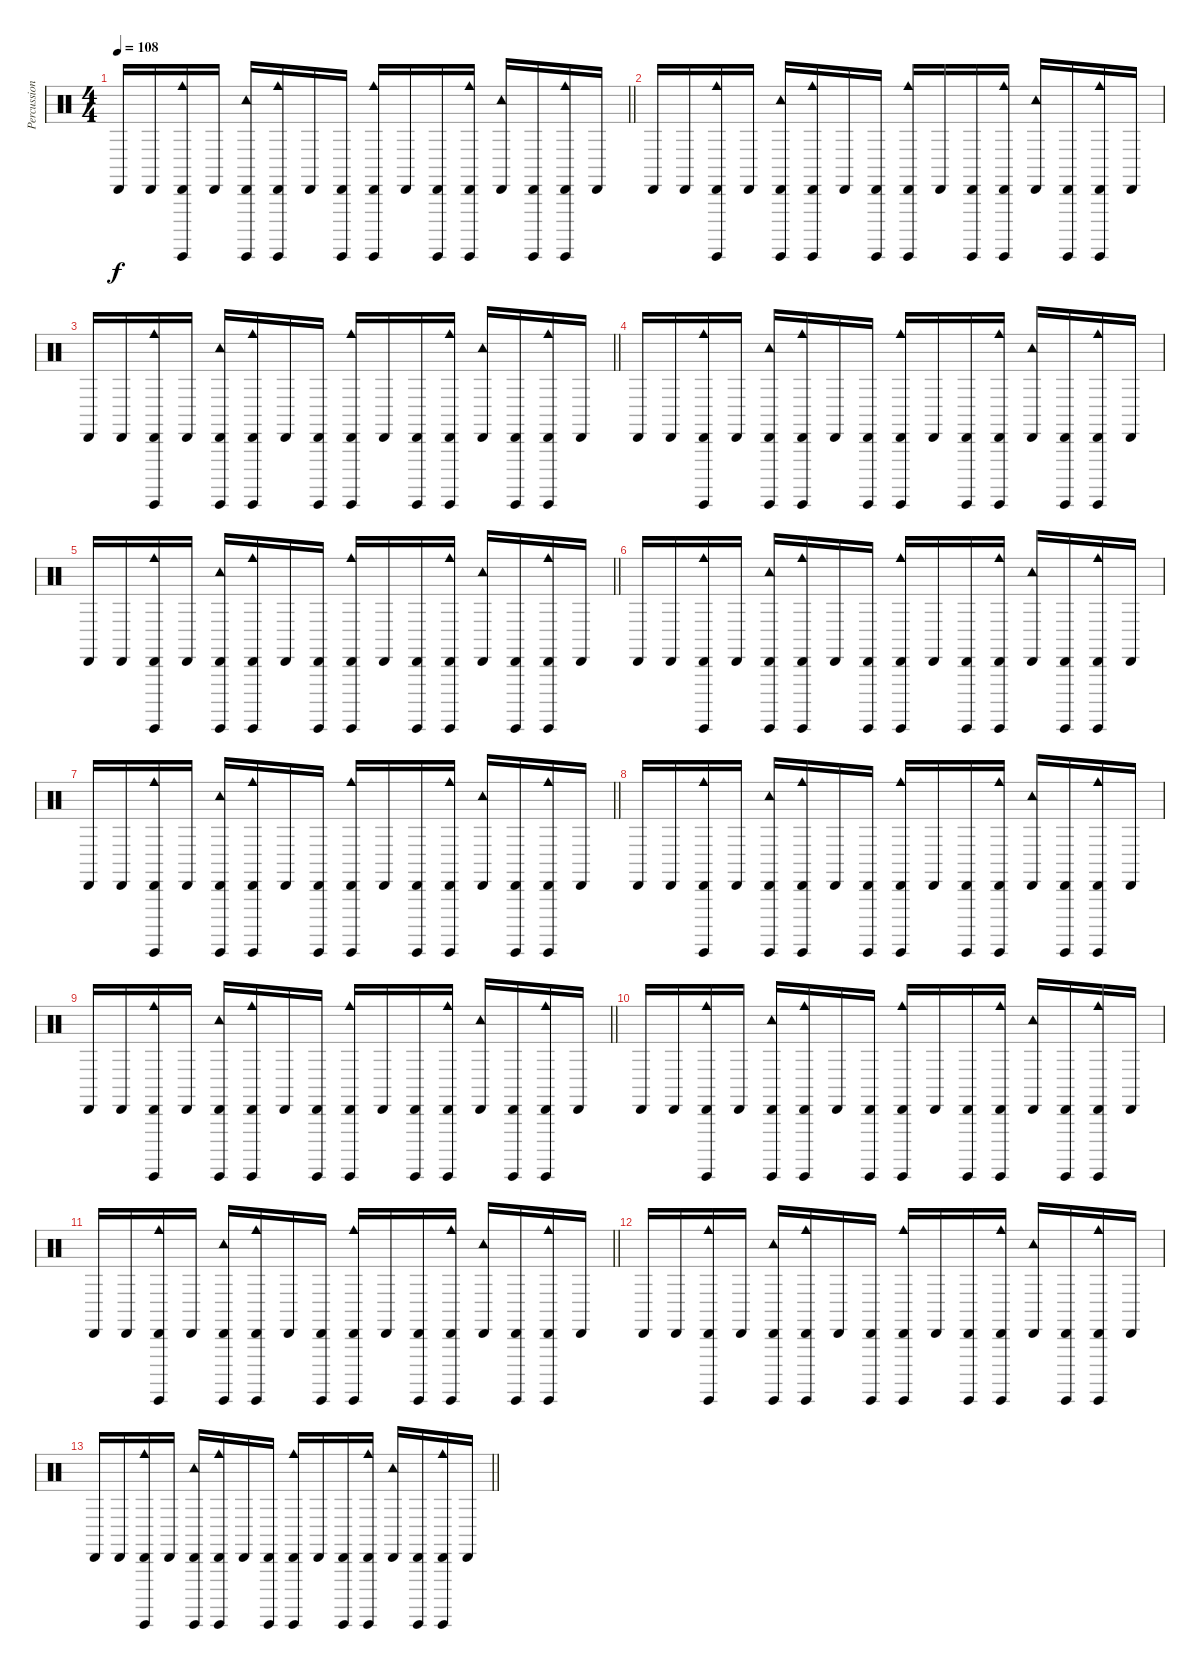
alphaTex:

\track ("Percussion (Chad Smith)" "Percussion") {instrument percussion}
\staff {score}
\articulation defaults
\ts (4 4)
\tempo 108
\clef neutral
\barLineRight lightlight
\ks c "Cabasa (hit)".16{dy f} "Cabasa (hit)".16
("Guiro (hit)" "Cabasa (hit)" "Cowbell medium (hit)").16 "Cabasa (hit)".16 ("Guiro (hit)" "Tambourine (hit)" "Cabasa (hit)").16 ("Guiro (hit)" "Cabasa (hit)" "Cowbell medium (hit)").16 "Cabasa (hit)".16 ("Guiro (hit)" "Cabasa (hit)").16 ("Guiro (hit)" "Cabasa (hit)" "Cowbell medium (hit)").16 "Cabasa (hit)".16 ("Guiro (hit)" "Cabasa (hit)").16 ("Guiro (hit)" "Cabasa (hit)" "Cowbell medium (hit)").16 ("Tambourine (hit)" "Cabasa (hit)").16 ("Guiro (hit)" "Cabasa (hit)").16 ("Guiro (hit)" "Cabasa (hit)" "Cowbell medium (hit)").16 "Cabasa (hit)".16 |
"Cabasa (hit)".16 "Cabasa (hit)".16 ("Guiro (hit)" "Cabasa (hit)" "Cowbell medium (hit)").16 "Cabasa (hit)".16 ("Guiro (hit)" "Tambourine (hit)" "Cabasa (hit)").16 ("Guiro (hit)" "Cabasa (hit)" "Cowbell medium (hit)").16 "Cabasa (hit)".16 ("Guiro (hit)" "Cabasa (hit)").16 ("Guiro (hit)" "Cabasa (hit)" "Cowbell medium (hit)").16 "Cabasa (hit)".16 ("Guiro (hit)" "Cabasa (hit)").16 ("Guiro (hit)" "Cabasa (hit)" "Cowbell medium (hit)").16 ("Tambourine (hit)" "Cabasa (hit)").16 ("Guiro (hit)" "Cabasa (hit)").16 ("Guiro (hit)" "Cabasa (hit)" "Cowbell medium (hit)").16 "Cabasa (hit)".16 |
\barLineRight lightlight "Cabasa (hit)".16 "Cabasa (hit)".16
("Guiro (hit)" "Cabasa (hit)" "Cowbell medium (hit)").16 "Cabasa (hit)".16 ("Guiro (hit)" "Tambourine (hit)" "Cabasa (hit)").16 ("Guiro (hit)" "Cabasa (hit)" "Cowbell medium (hit)").16 "Cabasa (hit)".16 ("Guiro (hit)" "Cabasa (hit)").16 ("Guiro (hit)" "Cabasa (hit)" "Cowbell medium (hit)").16 "Cabasa (hit)".16 ("Guiro (hit)" "Cabasa (hit)").16 ("Guiro (hit)" "Cabasa (hit)" "Cowbell medium (hit)").16 ("Tambourine (hit)" "Cabasa (hit)").16 ("Guiro (hit)" "Cabasa (hit)").16 ("Guiro (hit)" "Cabasa (hit)" "Cowbell medium (hit)").16 "Cabasa (hit)".16 |
"Cabasa (hit)".16 "Cabasa (hit)".16 ("Guiro (hit)" "Cabasa (hit)" "Cowbell medium (hit)").16 "Cabasa (hit)".16 ("Guiro (hit)" "Tambourine (hit)" "Cabasa (hit)").16 ("Guiro (hit)" "Cabasa (hit)" "Cowbell medium (hit)").16 "Cabasa (hit)".16 ("Guiro (hit)" "Cabasa (hit)").16 ("Guiro (hit)" "Cabasa (hit)" "Cowbell medium (hit)").16 "Cabasa (hit)".16 ("Guiro (hit)" "Cabasa (hit)").16 ("Guiro (hit)" "Cabasa (hit)" "Cowbell medium (hit)").16 ("Tambourine (hit)" "Cabasa (hit)").16 ("Guiro (hit)" "Cabasa (hit)").16 ("Guiro (hit)" "Cabasa (hit)" "Cowbell medium (hit)").16 "Cabasa (hit)".16 |
\barLineRight lightlight "Cabasa (hit)".16 "Cabasa (hit)".16
("Guiro (hit)" "Cabasa (hit)" "Cowbell medium (hit)").16 "Cabasa (hit)".16 ("Guiro (hit)" "Tambourine (hit)" "Cabasa (hit)").16 ("Guiro (hit)" "Cabasa (hit)" "Cowbell medium (hit)").16 "Cabasa (hit)".16 ("Guiro (hit)" "Cabasa (hit)").16 ("Guiro (hit)" "Cabasa (hit)" "Cowbell medium (hit)").16 "Cabasa (hit)".16 ("Guiro (hit)" "Cabasa (hit)").16 ("Guiro (hit)" "Cabasa (hit)" "Cowbell medium (hit)").16 ("Tambourine (hit)" "Cabasa (hit)").16 ("Guiro (hit)" "Cabasa (hit)").16 ("Guiro (hit)" "Cabasa (hit)" "Cowbell medium (hit)").16 "Cabasa (hit)".16 |
"Cabasa (hit)".16 "Cabasa (hit)".16 ("Guiro (hit)" "Cabasa (hit)" "Cowbell medium (hit)").16 "Cabasa (hit)".16 ("Guiro (hit)" "Tambourine (hit)" "Cabasa (hit)").16 ("Guiro (hit)" "Cabasa (hit)" "Cowbell medium (hit)").16 "Cabasa (hit)".16 ("Guiro (hit)" "Cabasa (hit)").16 ("Guiro (hit)" "Cabasa (hit)" "Cowbell medium (hit)").16 "Cabasa (hit)".16 ("Guiro (hit)" "Cabasa (hit)").16 ("Guiro (hit)" "Cabasa (hit)" "Cowbell medium (hit)").16 ("Tambourine (hit)" "Cabasa (hit)").16 ("Guiro (hit)" "Cabasa (hit)").16 ("Guiro (hit)" "Cabasa (hit)" "Cowbell medium (hit)").16 "Cabasa (hit)".16 |
\barLineRight lightlight "Cabasa (hit)".16 "Cabasa (hit)".16
("Guiro (hit)" "Cabasa (hit)" "Cowbell medium (hit)").16 "Cabasa (hit)".16 ("Guiro (hit)" "Tambourine (hit)" "Cabasa (hit)").16 ("Guiro (hit)" "Cabasa (hit)" "Cowbell medium (hit)").16 "Cabasa (hit)".16 ("Guiro (hit)" "Cabasa (hit)").16 ("Guiro (hit)" "Cabasa (hit)" "Cowbell medium (hit)").16 "Cabasa (hit)".16 ("Guiro (hit)" "Cabasa (hit)").16 ("Guiro (hit)" "Cabasa (hit)" "Cowbell medium (hit)").16 ("Tambourine (hit)" "Cabasa (hit)").16 ("Guiro (hit)" "Cabasa (hit)").16 ("Guiro (hit)" "Cabasa (hit)" "Cowbell medium (hit)").16 "Cabasa (hit)".16 |
"Cabasa (hit)".16 "Cabasa (hit)".16 ("Guiro (hit)" "Cabasa (hit)" "Cowbell medium (hit)").16 "Cabasa (hit)".16 ("Guiro (hit)" "Tambourine (hit)" "Cabasa (hit)").16 ("Guiro (hit)" "Cabasa (hit)" "Cowbell medium (hit)").16 "Cabasa (hit)".16 ("Guiro (hit)" "Cabasa (hit)").16 ("Guiro (hit)" "Cabasa (hit)" "Cowbell medium (hit)").16 "Cabasa (hit)".16 ("Guiro (hit)" "Cabasa (hit)").16 ("Guiro (hit)" "Cabasa (hit)" "Cowbell medium (hit)").16 ("Tambourine (hit)" "Cabasa (hit)").16 ("Guiro (hit)" "Cabasa (hit)").16 ("Guiro (hit)" "Cabasa (hit)" "Cowbell medium (hit)").16 "Cabasa (hit)".16 |
\barLineRight lightlight "Cabasa (hit)".16 "Cabasa (hit)".16
("Guiro (hit)" "Cabasa (hit)" "Cowbell medium (hit)").16 "Cabasa (hit)".16 ("Guiro (hit)" "Tambourine (hit)" "Cabasa (hit)").16 ("Guiro (hit)" "Cabasa (hit)" "Cowbell medium (hit)").16 "Cabasa (hit)".16 ("Guiro (hit)" "Cabasa (hit)").16 ("Guiro (hit)" "Cabasa (hit)" "Cowbell medium (hit)").16 "Cabasa (hit)".16 ("Guiro (hit)" "Cabasa (hit)").16 ("Guiro (hit)" "Cabasa (hit)" "Cowbell medium (hit)").16 ("Tambourine (hit)" "Cabasa (hit)").16 ("Guiro (hit)" "Cabasa (hit)").16 ("Guiro (hit)" "Cabasa (hit)" "Cowbell medium (hit)").16 "Cabasa (hit)".16 |
"Cabasa (hit)".16 "Cabasa (hit)".16 ("Guiro (hit)" "Cabasa (hit)" "Cowbell medium (hit)").16 "Cabasa (hit)".16 ("Guiro (hit)" "Tambourine (hit)" "Cabasa (hit)").16 ("Guiro (hit)" "Cabasa (hit)" "Cowbell medium (hit)").16 "Cabasa (hit)".16 ("Guiro (hit)" "Cabasa (hit)").16 ("Guiro (hit)" "Cabasa (hit)" "Cowbell medium (hit)").16 "Cabasa (hit)".16 ("Guiro (hit)" "Cabasa (hit)").16 ("Guiro (hit)" "Cabasa (hit)" "Cowbell medium (hit)").16 ("Tambourine (hit)" "Cabasa (hit)").16 ("Guiro (hit)" "Cabasa (hit)").16 ("Guiro (hit)" "Cabasa (hit)" "Cowbell medium (hit)").16 "Cabasa (hit)".16 |
\barLineRight lightlight "Cabasa (hit)".16 "Cabasa (hit)".16
("Guiro (hit)" "Cabasa (hit)" "Cowbell medium (hit)").16 "Cabasa (hit)".16 ("Guiro (hit)" "Tambourine (hit)" "Cabasa (hit)").16 ("Guiro (hit)" "Cabasa (hit)" "Cowbell medium (hit)").16 "Cabasa (hit)".16 ("Guiro (hit)" "Cabasa (hit)").16 ("Guiro (hit)" "Cabasa (hit)" "Cowbell medium (hit)").16 "Cabasa (hit)".16 ("Guiro (hit)" "Cabasa (hit)").16 ("Guiro (hit)" "Cabasa (hit)" "Cowbell medium (hit)").16 ("Tambourine (hit)" "Cabasa (hit)").16 ("Guiro (hit)" "Cabasa (hit)").16 ("Guiro (hit)" "Cabasa (hit)" "Cowbell medium (hit)").16 "Cabasa (hit)".16 |
"Cabasa (hit)".16 "Cabasa (hit)".16 ("Guiro (hit)" "Cabasa (hit)" "Cowbell medium (hit)").16 "Cabasa (hit)".16 ("Guiro (hit)" "Tambourine (hit)" "Cabasa (hit)").16 ("Guiro (hit)" "Cabasa (hit)" "Cowbell medium (hit)").16 "Cabasa (hit)".16 ("Guiro (hit)" "Cabasa (hit)").16 ("Guiro (hit)" "Cabasa (hit)" "Cowbell medium (hit)").16 "Cabasa (hit)".16 ("Guiro (hit)" "Cabasa (hit)").16 ("Guiro (hit)" "Cabasa (hit)" "Cowbell medium (hit)").16 ("Tambourine (hit)" "Cabasa (hit)").16 ("Guiro (hit)" "Cabasa (hit)").16 ("Guiro (hit)" "Cabasa (hit)" "Cowbell medium (hit)").16 "Cabasa (hit)".16 |
\barLineRight lightlight "Cabasa (hit)".16 "Cabasa (hit)".16
("Guiro (hit)" "Cabasa (hit)" "Cowbell medium (hit)").16 "Cabasa (hit)".16 ("Guiro (hit)" "Tambourine (hit)" "Cabasa (hit)").16 ("Guiro (hit)" "Cabasa (hit)" "Cowbell medium (hit)").16 "Cabasa (hit)".16 ("Guiro (hit)" "Cabasa (hit)").16 ("Guiro (hit)" "Cabasa (hit)" "Cowbell medium (hit)").16 "Cabasa (hit)".16 ("Guiro (hit)" "Cabasa (hit)").16 ("Guiro (hit)" "Cabasa (hit)" "Cowbell medium (hit)").16 ("Tambourine (hit)" "Cabasa (hit)").16 ("Guiro (hit)" "Cabasa (hit)").16 ("Guiro (hit)" "Cabasa (hit)" "Cowbell medium (hit)").16 "Cabasa (hit)".16
